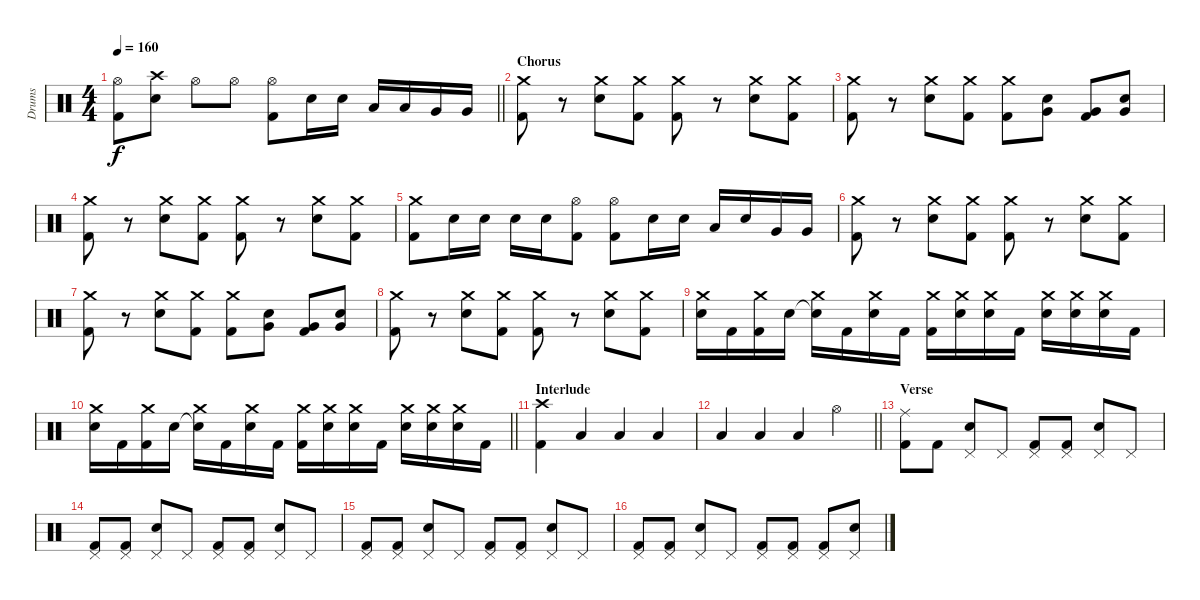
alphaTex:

\track ("Drums" "Drums") {instrument percussion}
\staff {score}
\articulation defaults
\ts (4 4)
\tempo 160
\clef neutral
\barLineRight lightlight
\ks c
("Hi-Hat (open)" "Kick (hit) 2").8{dy f} ("Crash high (hit)" "Snare (hit) 2").8 "Hi-Hat (open)".8 "Hi-Hat (open)".8 ("Hi-Hat (open)" "Kick (hit) 2").8 "Snare (hit) 2".16 "Snare (hit) 2".16 "Low Tom (hit)".16 "Low Tom (hit)".16 "Very Low Tom (hit)".16 "Very Low Tom (hit)".16 |
\section ("" "Chorus")
("Kick (hit) 2" "Crash medium (hit)").8 r.8 ("Snare (hit) 2" "Crash medium (hit)").8 ("Kick (hit) 2" "Crash medium (hit)").8 ("Kick (hit) 2" "Crash medium (hit)").8 r.8 ("Snare (hit) 2" "Crash medium (hit)").8 ("Kick (hit) 2" "Crash medium (hit)").8 |
("Kick (hit) 2" "Crash medium (hit)").8 r.8 ("Snare (hit) 2" "Crash medium (hit)").8 ("Kick (hit) 2" "Crash medium (hit)").8 ("Kick (hit) 2" "Crash medium (hit)").8 ("Snare (hit) 2" "Very Low Tom (hit)").8 ("Kick (hit) 2" "Very Low Tom (hit)").8 ("Snare (hit) 2" "Very Low Tom (hit)").8 |
("Kick (hit) 2" "Crash medium (hit)").8 r.8 ("Snare (hit) 2" "Crash medium (hit)").8 ("Kick (hit) 2" "Crash medium (hit)").8 ("Kick (hit) 2" "Crash medium (hit)").8 r.8 ("Snare (hit) 2" "Crash medium (hit)").8 ("Kick (hit) 2" "Crash medium (hit)").8 |
("Kick (hit) 2" "Crash medium (hit)").8 "Snare (hit) 2".16 "Snare (hit) 2".16 "Snare (hit) 2".16 "Snare (hit) 2".16 ("Hi-Hat (open)" "Kick (hit) 2").8 ("Hi-Hat (open)" "Kick (hit) 2").8 "Snare (hit) 2".16 "Snare (hit) 2".16 "Low Tom (hit)".16 "Snare (hit) 2".16 "Very Low Tom (hit)".16 "Very Low Tom (hit)".16 |
("Kick (hit) 2" "Crash medium (hit)").8 r.8 ("Snare (hit) 2" "Crash medium (hit)").8 ("Kick (hit) 2" "Crash medium (hit)").8 ("Kick (hit) 2" "Crash medium (hit)").8 r.8 ("Snare (hit) 2" "Crash medium (hit)").8 ("Kick (hit) 2" "Crash medium (hit)").8 |
("Kick (hit) 2" "Crash medium (hit)").8 r.8 ("Snare (hit) 2" "Crash medium (hit)").8 ("Kick (hit) 2" "Crash medium (hit)").8 ("Kick (hit) 2" "Crash medium (hit)").8 ("Snare (hit) 2" "Very Low Tom (hit)").8 ("Kick (hit) 2" "Very Low Tom (hit)").8 ("Snare (hit) 2" "Very Low Tom (hit)").8 |
("Kick (hit) 2" "Crash medium (hit)").8 r.8 ("Snare (hit) 2" "Crash medium (hit)").8 ("Kick (hit) 2" "Crash medium (hit)").8 ("Kick (hit) 2" "Crash medium (hit)").8 r.8 ("Snare (hit) 2" "Crash medium (hit)").8 ("Kick (hit) 2" "Crash medium (hit)").8 |
("Snare (hit) 2" "Crash medium (hit)").16 "Kick (hit) 2".16 ("Kick (hit) 2" "Crash medium (hit)").16 "Snare (hit) 2".16 ("Snare (hit)"{t} "Crash medium (hit)").16 "Kick (hit) 2".16 ("Snare (hit) 2" "Crash medium (hit)").16 "Kick (hit) 2".16 ("Kick (hit) 2" "Crash medium (hit)").16 ("Snare (hit) 2" "Crash medium (hit)").16 ("Snare (hit) 2" "Crash medium (hit)").16 "Kick (hit) 2".16 ("Snare (hit) 2" "Crash medium (hit)").16 ("Snare (hit) 2" "Crash medium (hit)").16 ("Snare (hit) 2" "Crash medium (hit)").16 "Kick (hit) 2".16 |
\barLineRight lightlight
("Snare (hit) 2" "Crash medium (hit)").16 "Kick (hit) 2".16 ("Kick (hit) 2" "Crash medium (hit)").16 "Snare (hit) 2".16 ("Snare (hit)"{t} "Crash medium (hit)").16 "Kick (hit) 2".16 ("Snare (hit) 2" "Crash medium (hit)").16 "Kick (hit) 2".16 ("Kick (hit) 2" "Crash medium (hit)").16 ("Snare (hit) 2" "Crash medium (hit)").16 ("Snare (hit) 2" "Crash medium (hit)").16 "Kick (hit) 2".16 ("Snare (hit) 2" "Crash medium (hit)").16 ("Snare (hit) 2" "Crash medium (hit)").16 ("Snare (hit) 2" "Crash medium (hit)").16 "Kick (hit) 2".16 |
\section ("" "Interlude")
("Crash high (hit)" "Kick (hit) 2").4 "Low Tom (hit)".4 "Low Tom (hit)".4 "Low Tom (hit)".4 |
\barLineRight lightlight "Low Tom (hit)".4 "Low Tom (hit)".4 "Low Tom (hit)".4 "Hi-Hat (open)".4
|
\section ("" "Verse")
("Ride (middle)" "Kick (hit) 2").8 "Kick (hit) 2".8 ("Pedal Hi-Hat (hit)" "Snare (hit) 2").8 "Pedal Hi-Hat (hit)".8 ("Pedal Hi-Hat (hit)" "Kick (hit) 2").8 ("Pedal Hi-Hat (hit)" "Kick (hit) 2").8 ("Pedal Hi-Hat (hit)" "Snare (hit) 2").8 "Pedal Hi-Hat (hit)".8 |
("Pedal Hi-Hat (hit)" "Kick (hit) 2").8 ("Pedal Hi-Hat (hit)" "Kick (hit) 2").8 ("Pedal Hi-Hat (hit)" "Snare (hit) 2").8 "Pedal Hi-Hat (hit)".8 ("Pedal Hi-Hat (hit)" "Kick (hit) 2").8 ("Pedal Hi-Hat (hit)" "Kick (hit) 2").8 ("Pedal Hi-Hat (hit)" "Snare (hit) 2").8 "Pedal Hi-Hat (hit)".8 |
("Pedal Hi-Hat (hit)" "Kick (hit) 2").8 ("Pedal Hi-Hat (hit)" "Kick (hit) 2").8 ("Pedal Hi-Hat (hit)" "Snare (hit) 2").8 "Pedal Hi-Hat (hit)".8 ("Pedal Hi-Hat (hit)" "Kick (hit) 2").8 ("Pedal Hi-Hat (hit)" "Kick (hit) 2").8 ("Pedal Hi-Hat (hit)" "Snare (hit) 2").8 "Pedal Hi-Hat (hit)".8 |
("Pedal Hi-Hat (hit)" "Kick (hit) 2").8 ("Pedal Hi-Hat (hit)" "Kick (hit) 2").8 ("Pedal Hi-Hat (hit)" "Snare (hit) 2").8 "Pedal Hi-Hat (hit)".8 ("Pedal Hi-Hat (hit)" "Kick (hit) 2").8 ("Pedal Hi-Hat (hit)" "Kick (hit) 2").8 ("Pedal Hi-Hat (hit)" "Kick (hit) 2").8 ("Pedal Hi-Hat (hit)" "Snare (hit) 2").8
